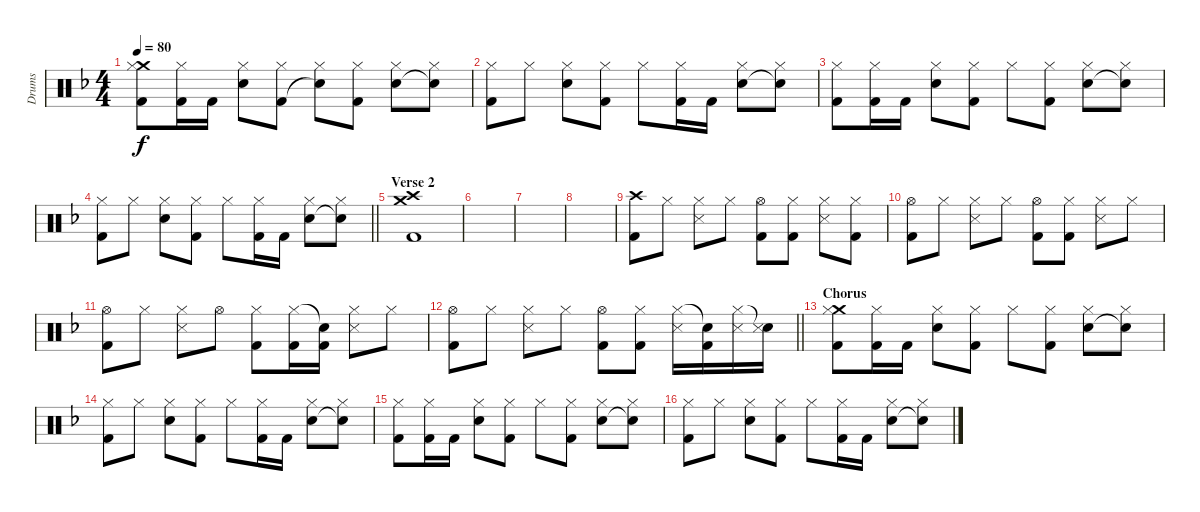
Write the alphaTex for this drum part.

\track ("Drums" "Drums") {instrument percussion}
\staff {score}
\articulation defaults
\ts (4 4)
\tempo 80
\clef neutral
\ks f
("Crash medium (hit)" "Hi-Hat (closed)" "Kick (hit) 2").8{dy f} ("Hi-Hat (closed)" "Kick (hit) 2").16 "Kick (hit) 2".16 ("Hi-Hat (closed)" "Snare (hit) 2").8 ("Hi-Hat (closed)" "Kick (hit) 2").8 ("Hi-Hat (closed)" "Snare (hit) 2"{t}).8 ("Hi-Hat (closed)" "Kick (hit) 2").8 ("Hi-Hat (closed)" "Snare (hit) 2").8 ("Hi-Hat (closed)" "Snare (hit) 2"{t}).8 |
("Hi-Hat (closed)" "Kick (hit) 2").8 "Hi-Hat (closed)".8 ("Hi-Hat (closed)" "Snare (hit) 2").8 ("Hi-Hat (closed)" "Kick (hit) 2").8 "Hi-Hat (closed)".8 ("Hi-Hat (closed)" "Kick (hit) 2").16 "Kick (hit) 2".16 ("Hi-Hat (closed)" "Snare (hit) 2").8 ("Hi-Hat (closed)" "Snare (hit)"{t}).8 |
("Hi-Hat (closed)" "Kick (hit) 2").8 ("Hi-Hat (closed)" "Kick (hit) 2").16 "Kick (hit) 2".16 ("Hi-Hat (closed)" "Snare (hit) 2").8 ("Hi-Hat (closed)" "Kick (hit) 2").8 "Hi-Hat (closed)".8 ("Hi-Hat (closed)" "Kick (hit) 2").8 ("Hi-Hat (closed)" "Snare (hit) 2").8 ("Hi-Hat (closed)" "Snare (hit) 2"{t}).8 |
\barLineRight lightlight
("Hi-Hat (closed)" "Kick (hit) 2").8 "Hi-Hat (closed)".8 ("Hi-Hat (closed)" "Snare (hit) 2").8 ("Hi-Hat (closed)" "Kick (hit) 2").8 "Hi-Hat (closed)".8 ("Hi-Hat (closed)" "Kick (hit) 2").16 "Kick (hit) 2".16 ("Hi-Hat (closed)" "Snare (hit) 2").8 ("Hi-Hat (closed)" "Snare (hit)"{t}).8 |
\section ("" "Verse 2")
("Crash high (hit)" "Crash medium (hit)" "Kick (hit) 2").1 |
|
|
|
("Crash high (hit)" "Kick (hit) 2").8 "Hi-Hat (closed)".8 ("Hi-Hat (closed)" "Snare (side stick) 3").8 "Hi-Hat (closed)".8 ("Hi-Hat (open)" "Kick (hit) 2").8 ("Hi-Hat (closed)" "Kick (hit) 2").8 ("Hi-Hat (closed)" "Snare (side stick) 3").8 ("Hi-Hat (closed)" "Kick (hit) 2").8 |
("Hi-Hat (open)" "Kick (hit) 2").8 "Hi-Hat (closed)".8 ("Hi-Hat (closed)" "Snare (side stick) 3").8 "Hi-Hat (closed)".8 ("Hi-Hat (open)" "Kick (hit) 2").8 ("Hi-Hat (closed)" "Kick (hit) 2").8 ("Hi-Hat (closed)" "Snare (side stick) 3").8 "Hi-Hat (closed)".8 |
("Hi-Hat (open)" "Kick (hit) 2").8 "Hi-Hat (closed)".8 ("Hi-Hat (closed)" "Snare (side stick) 3").8 "Hi-Hat (open)".8 ("Hi-Hat (closed)" "Kick (hit) 2").8 ("Hi-Hat (closed)" "Kick (hit) 2").16 ("Snare (hit)"{t} "Kick (hit) 2").16 ("Hi-Hat (closed)" "Snare (side stick) 3").8 "Hi-Hat (closed)".8 |
\barLineRight lightlight
("Hi-Hat (open)" "Kick (hit) 2").8 "Hi-Hat (closed)".8 ("Hi-Hat (closed)" "Snare (side stick) 3").8 "Hi-Hat (closed)".8 ("Hi-Hat (open)" "Kick (hit) 2").8 ("Hi-Hat (closed)" "Kick (hit) 2").8 ("Hi-Hat (closed)" "Snare (side stick) 3").16 ("Snare (hit)"{t} "Kick (hit) 2").16 ("Hi-Hat (closed)" "Snare (side stick) 3").16 ("Snare (hit)"{t} "Snare (side stick) 3").16 |
\section ("" "Chorus")
("Crash medium (hit)" "Hi-Hat (closed)" "Kick (hit) 2").8 ("Hi-Hat (closed)" "Kick (hit) 2").16 "Kick (hit) 2".16 ("Hi-Hat (closed)" "Snare (hit) 2").8 ("Hi-Hat (closed)" "Kick (hit) 2").8 "Hi-Hat (closed)".8 ("Hi-Hat (closed)" "Kick (hit) 2").8 ("Hi-Hat (closed)" "Snare (hit) 2").8 ("Hi-Hat (closed)" "Snare (hit) 2"{t}).8 |
("Hi-Hat (closed)" "Kick (hit) 2").8 "Hi-Hat (closed)".8 ("Hi-Hat (closed)" "Snare (hit) 2").8 ("Hi-Hat (closed)" "Kick (hit) 2").8 "Hi-Hat (closed)".8 ("Hi-Hat (closed)" "Kick (hit) 2").16 "Kick (hit) 2".16 ("Hi-Hat (closed)" "Snare (hit) 2").8 ("Hi-Hat (closed)" "Snare (hit)"{t}).8 |
("Hi-Hat (closed)" "Kick (hit) 2").8 ("Hi-Hat (closed)" "Kick (hit) 2").16 "Kick (hit) 2".16 ("Hi-Hat (closed)" "Snare (hit) 2").8 ("Hi-Hat (closed)" "Kick (hit) 2").8 "Hi-Hat (closed)".8 ("Hi-Hat (closed)" "Kick (hit) 2").8 ("Hi-Hat (closed)" "Snare (hit) 2").8 ("Hi-Hat (closed)" "Snare (hit) 2"{t}).8 |
("Hi-Hat (closed)" "Kick (hit) 2").8 "Hi-Hat (closed)".8 ("Hi-Hat (closed)" "Snare (hit) 2").8 ("Hi-Hat (closed)" "Kick (hit) 2").8 "Hi-Hat (closed)".8 ("Hi-Hat (closed)" "Kick (hit) 2").16 "Kick (hit) 2".16 ("Hi-Hat (closed)" "Snare (hit) 2").8 ("Hi-Hat (closed)" "Snare (hit)"{t}).8
